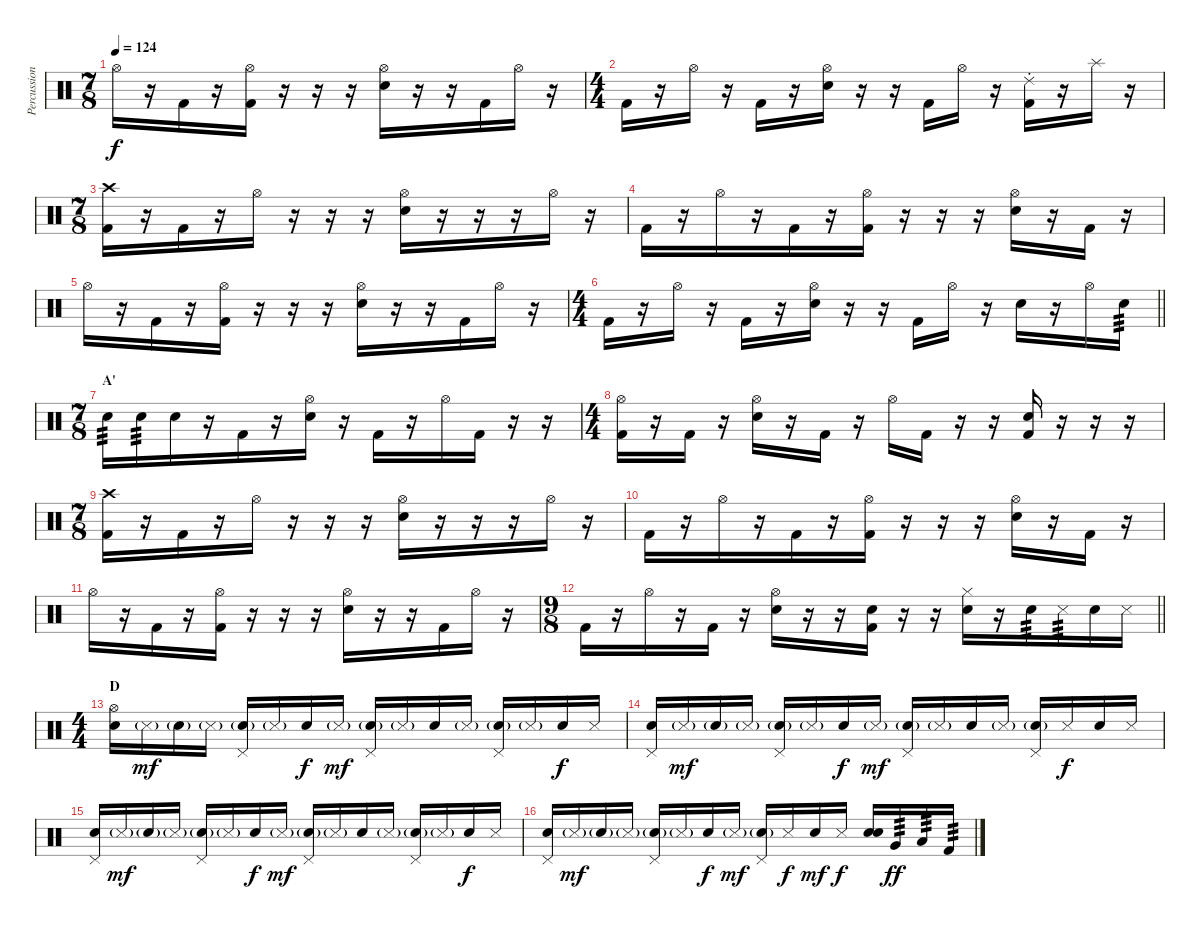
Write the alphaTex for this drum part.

\track ("Percussion" "Percussion") {instrument percussion}
\staff {score}
\articulation defaults
\ts (7 8)
\tempo 124
\clef neutral
\ks c "Hi-Hat (open)".16{dy f}
r.16 "Kick (hit) 2".16 r.16 ("Hi-Hat (open)" "Kick (hit) 2").16 r.16 r.16 r.16 ("Hi-Hat (open)" "Snare (hit) 2").16 r.16 r.16 "Kick (hit) 2".16 "Hi-Hat (open)".16 r.16 |
\ts (4 4)
"Kick (hit) 2".16 r.16 "Hi-Hat (open)".16 r.16 "Kick (hit) 2".16 r.16 ("Hi-Hat (open)" "Snare (hit) 2").16 r.16 r.16 "Kick (hit) 2".16 "Hi-Hat (open)".16 r.16 ("Ride (choke) 2" "Kick (hit) 2").16 r.16 "Splash (hit)".16 r.16 |
\ts (7 8)
("Crash high (hit)" "Kick (hit) 2").16 r.16 "Kick (hit) 2".16 r.16 "Hi-Hat (open)".16 r.16 r.16 r.16 ("Hi-Hat (open)" "Snare (hit) 2").16 r.16 r.16 r.16 "Hi-Hat (open)".16 r.16 |
"Kick (hit) 2".16 r.16 "Hi-Hat (open)".16 r.16 "Kick (hit) 2".16 r.16 ("Hi-Hat (open)" "Kick (hit) 2").16 r.16 r.16 r.16 ("Hi-Hat (open)" "Snare (hit) 2").16 r.16 "Kick (hit) 2".16 r.16 |
"Hi-Hat (open)".16 r.16 "Kick (hit) 2".16 r.16 ("Hi-Hat (open)" "Kick (hit) 2").16 r.16 r.16 r.16 ("Hi-Hat (open)" "Snare (hit) 2").16 r.16 r.16 "Kick (hit) 2".16 "Hi-Hat (open)".16 r.16 |
\ts (4 4)
\barLineRight lightlight "Kick (hit) 2".16
r.16 "Hi-Hat (open)".16 r.16 "Kick (hit) 2".16 r.16 ("Hi-Hat (open)" "Snare (hit) 2").16 r.16 r.16 "Kick (hit) 2".16 "Hi-Hat (open)".16 r.16 "Snare (hit) 2".16 r.16 "Hi-Hat (open)".16 "Snare (hit) 2".16{tp 3} |
\ts (7 8)
\section ("" "A'")
"Snare (hit)".16{tp 3} "Snare (hit)".16{tp 3} "Snare (hit)".16 r.16 "Kick (hit) 2".16 r.16 ("Hi-Hat (open)" "Snare (hit) 2").16 r.16 "Kick (hit) 2".16 r.16 "Hi-Hat (open)".16 "Kick (hit) 2".16 r.16 r.16 |
\ts (4 4)
("Hi-Hat (open)" "Kick (hit) 2").16 r.16 "Kick (hit) 2".16 r.16 ("Hi-Hat (open)" "Snare (hit) 2").16 r.16 "Kick (hit) 2".16 r.16 "Hi-Hat (open)".16 "Kick (hit) 2".16 r.16 r.16 ("Snare (hit)" "Kick (hit) 2").16 r.16 r.16 r.16 |
\ts (7 8)
("Crash high (hit)" "Kick (hit) 2").16 r.16 "Kick (hit) 2".16 r.16 "Hi-Hat (open)".16 r.16 r.16 r.16 ("Hi-Hat (open)" "Snare (hit) 2").16 r.16 r.16 r.16 "Hi-Hat (open)".16 r.16 |
"Kick (hit) 2".16 r.16 "Hi-Hat (open)".16 r.16 "Kick (hit) 2".16 r.16 ("Hi-Hat (open)" "Kick (hit) 2").16 r.16 r.16 r.16 ("Hi-Hat (open)" "Snare (hit) 2").16 r.16 "Kick (hit) 2".16 r.16 |
"Hi-Hat (open)".16 r.16 "Kick (hit) 2".16 r.16 ("Hi-Hat (open)" "Kick (hit) 2").16 r.16 r.16 r.16 ("Hi-Hat (open)" "Snare (hit) 2").16 r.16 r.16 "Kick (hit) 2".16 "Hi-Hat (open)".16 r.16 |
\ts (9 8)
\barLineRight lightlight "Kick (hit) 2".16
r.16 "Hi-Hat (open)".16 r.16 "Kick (hit) 2".16 r.16 ("Hi-Hat (open)" "Snare (hit) 2").16 r.16 r.16 ("Snare (hit)" "Kick (hit) 2").16 r.16 r.16 ("Hi-Hat (closed)" "Snare (hit) 2").16 r.16 "Snare (hit) 2".16{tp 3} "Metronome (hit)".16{tp 3} "Snare (hit) 2".16 "Metronome (hit)".16 |
\ts (4 4)
\section ("" "D")
("Hi-Hat (open)" "Snare (hit) 2").16 "Metronome (hit)"{g}.16{dy mf} "Snare (hit) 2"{g}.16 "Metronome (hit)"{g}.16 ("Pedal Hi-Hat (hit)" "Snare (hit) 2"{g}).16 "Metronome (hit)"{g}.16 "Snare (hit) 2".16{dy f} "Metronome (hit)"{g}.16{dy mf} ("Pedal Hi-Hat (hit)" "Snare (hit) 2"{g}).16 "Metronome (hit)"{g}.16 "Snare (hit) 2".16 "Metronome (hit)"{g}.16 ("Pedal Hi-Hat (hit)" "Snare (hit) 2"{g}).16 "Metronome (hit)"{g}.16 "Snare (hit) 2".16{dy f} "Metronome (hit)".16 |
("Pedal Hi-Hat (hit)" "Snare (hit) 2").16 "Metronome (hit)"{g}.16{dy mf} "Snare (hit) 2"{g}.16 "Metronome (hit)"{g}.16 ("Pedal Hi-Hat (hit)" "Snare (hit) 2"{g}).16 "Metronome (hit)"{g}.16 "Snare (hit) 2".16{dy f} "Metronome (hit)"{g}.16{dy mf} ("Pedal Hi-Hat (hit)" "Snare (hit) 2"{g}).16 "Metronome (hit)"{g}.16 "Snare (hit) 2".16 "Metronome (hit)"{g}.16 ("Pedal Hi-Hat (hit)" "Snare (hit) 2"{g}).16 "Metronome (hit)".16{dy f} "Snare (hit) 2".16 "Metronome (hit)".16 |
("Pedal Hi-Hat (hit)" "Snare (hit) 2").16 "Metronome (hit)"{g}.16{dy mf} "Snare (hit) 2"{g}.16 "Metronome (hit)"{g}.16 ("Pedal Hi-Hat (hit)" "Snare (hit) 2"{g}).16 "Metronome (hit)"{g}.16 "Snare (hit) 2".16{dy f} "Metronome (hit)"{g}.16{dy mf} ("Pedal Hi-Hat (hit)" "Snare (hit) 2"{g}).16 "Metronome (hit)"{g}.16 "Snare (hit) 2".16 "Metronome (hit)"{g}.16 ("Pedal Hi-Hat (hit)" "Snare (hit) 2"{g}).16 "Metronome (hit)"{g}.16 "Snare (hit) 2".16{dy f} "Metronome (hit)".16 |
("Pedal Hi-Hat (hit)" "Snare (hit) 2").16 "Metronome (hit)"{g}.16{dy mf} "Snare (hit) 2"{g}.16 "Metronome (hit)"{g}.16 ("Pedal Hi-Hat (hit)" "Snare (hit) 2"{g}).16 "Metronome (hit)"{g}.16 "Snare (hit) 2".16{dy f} "Metronome (hit)"{g}.16{dy mf} ("Pedal Hi-Hat (hit)" "Snare (hit) 2"{g}).16 "Metronome (hit)".16{dy f} "Snare (hit) 2".16{dy mf} "Metronome (hit)".16{dy f} ("Snare (hit)" "Snare (hit) 2").16 "Very Low Tom (hit)".16{tp 3 dy ff} "Low Floor Tom (hit)".16{tp 3} "Kick (hit) 2".16{tp 3}
